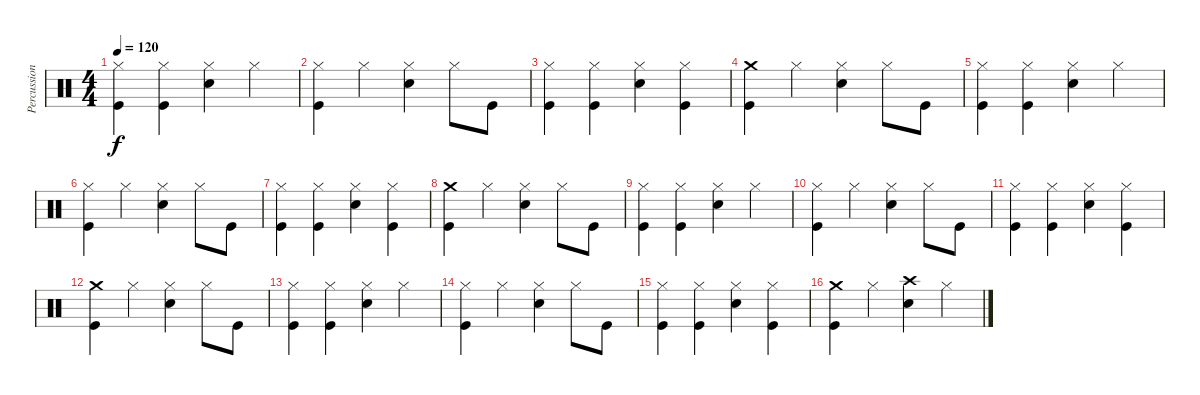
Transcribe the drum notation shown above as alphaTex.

\track ("Percussion" "Percussion") {instrument percussion}
\staff {score}
\articulation defaults
\ts (4 4)
\tempo 120
\clef neutral
\ks c
("Hi-Hat (closed)" "Kick (hit)").4{dy f} ("Hi-Hat (closed)" "Kick (hit)").4 ("Hi-Hat (closed)" "Snare (hit) 2").4 "Hi-Hat (closed)".4 |
("Hi-Hat (closed)" "Kick (hit)").4 "Hi-Hat (closed)".4 ("Hi-Hat (closed)" "Snare (hit) 2").4 "Hi-Hat (closed)".8 "Kick (hit)".8 |
("Hi-Hat (closed)" "Kick (hit)").4 ("Hi-Hat (closed)" "Kick (hit)").4 ("Hi-Hat (closed)" "Snare (hit) 2").4 ("Hi-Hat (closed)" "Kick (hit)").4 |
("Crash medium (hit)" "Kick (hit)").4 "Hi-Hat (closed)".4 ("Hi-Hat (closed)" "Snare (hit) 2").4 "Hi-Hat (closed)".8 "Kick (hit)".8 |
("Hi-Hat (closed)" "Kick (hit)").4 ("Hi-Hat (closed)" "Kick (hit)").4 ("Hi-Hat (closed)" "Snare (hit) 2").4 "Hi-Hat (closed)".4 |
("Hi-Hat (closed)" "Kick (hit)").4 "Hi-Hat (closed)".4 ("Hi-Hat (closed)" "Snare (hit) 2").4 "Hi-Hat (closed)".8 "Kick (hit)".8 |
("Hi-Hat (closed)" "Kick (hit)").4 ("Hi-Hat (closed)" "Kick (hit)").4 ("Hi-Hat (closed)" "Snare (hit) 2").4 ("Hi-Hat (closed)" "Kick (hit)").4 |
("Crash medium (hit)" "Kick (hit)").4 "Hi-Hat (closed)".4 ("Hi-Hat (closed)" "Snare (hit) 2").4 "Hi-Hat (closed)".8 "Kick (hit)".8 |
("Hi-Hat (closed)" "Kick (hit)").4 ("Hi-Hat (closed)" "Kick (hit)").4 ("Hi-Hat (closed)" "Snare (hit) 2").4 "Hi-Hat (closed)".4 |
("Hi-Hat (closed)" "Kick (hit)").4 "Hi-Hat (closed)".4 ("Hi-Hat (closed)" "Snare (hit) 2").4 "Hi-Hat (closed)".8 "Kick (hit)".8 |
("Hi-Hat (closed)" "Kick (hit)").4 ("Hi-Hat (closed)" "Kick (hit)").4 ("Hi-Hat (closed)" "Snare (hit) 2").4 ("Hi-Hat (closed)" "Kick (hit)").4 |
("Crash medium (hit)" "Kick (hit)").4 "Hi-Hat (closed)".4 ("Hi-Hat (closed)" "Snare (hit) 2").4 "Hi-Hat (closed)".8 "Kick (hit)".8 |
("Hi-Hat (closed)" "Kick (hit)").4 ("Hi-Hat (closed)" "Kick (hit)").4 ("Hi-Hat (closed)" "Snare (hit) 2").4 "Hi-Hat (closed)".4 |
("Hi-Hat (closed)" "Kick (hit)").4 "Hi-Hat (closed)".4 ("Hi-Hat (closed)" "Snare (hit) 2").4 "Hi-Hat (closed)".8 "Kick (hit)".8 |
("Hi-Hat (closed)" "Kick (hit)").4 ("Hi-Hat (closed)" "Kick (hit)").4 ("Hi-Hat (closed)" "Snare (hit) 2").4 ("Hi-Hat (closed)" "Kick (hit)").4 |
("Crash medium (hit)" "Kick (hit)").4 "Hi-Hat (closed)".4 ("Crash high (hit)" "Snare (hit) 2").4 "Hi-Hat (closed)".4
